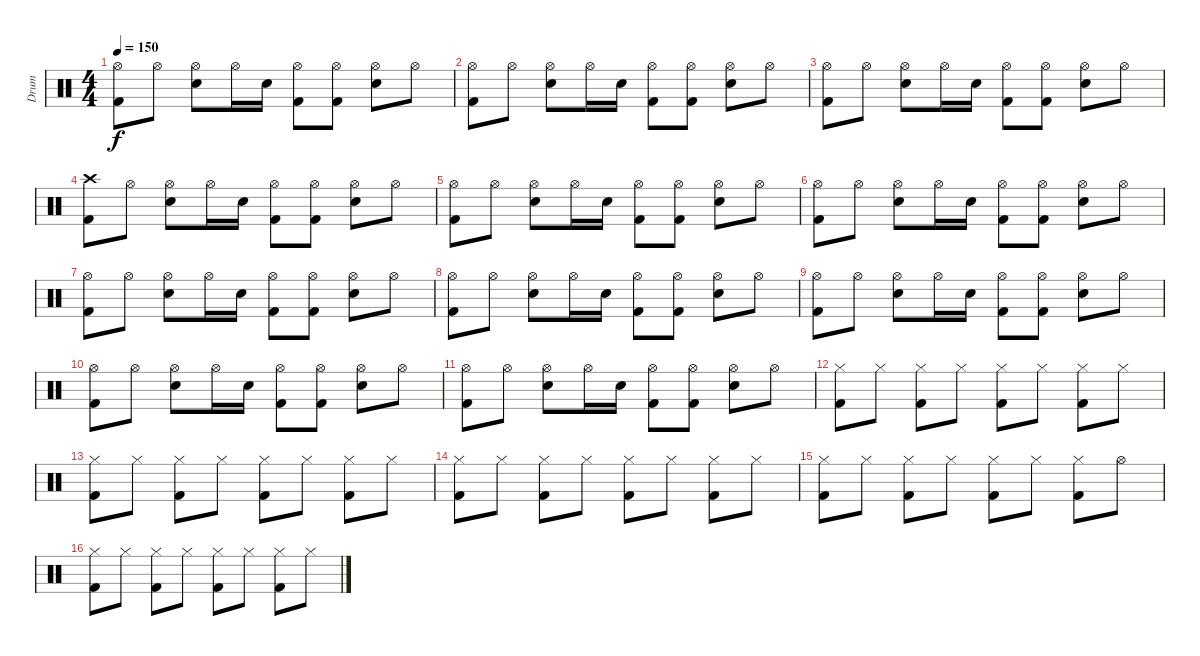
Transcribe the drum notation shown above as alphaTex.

\track ("Drum" "Drum") {instrument percussion}
\staff {score}
\articulation defaults
\ts (4 4)
\tempo 150
\clef neutral
\ks c
("Hi-Hat (open)" "Kick (hit) 2").8{dy f} "Hi-Hat (open)".8 ("Hi-Hat (open)" "Snare (hit) 2").8 "Hi-Hat (open)".16 "Snare (hit) 2".16 ("Hi-Hat (open)" "Kick (hit) 2").8 ("Hi-Hat (open)" "Kick (hit) 2").8 ("Hi-Hat (open)" "Snare (hit) 2").8 "Hi-Hat (open)".8 |
("Hi-Hat (open)" "Kick (hit) 2").8 "Hi-Hat (open)".8 ("Hi-Hat (open)" "Snare (hit) 2").8 "Hi-Hat (open)".16 "Snare (hit) 2".16 ("Hi-Hat (open)" "Kick (hit) 2").8 ("Hi-Hat (open)" "Kick (hit) 2").8 ("Hi-Hat (open)" "Snare (hit) 2").8 "Hi-Hat (open)".8 |
("Hi-Hat (open)" "Kick (hit) 2").8 "Hi-Hat (open)".8 ("Hi-Hat (open)" "Snare (hit) 2").8 "Hi-Hat (open)".16 "Snare (hit) 2".16 ("Hi-Hat (open)" "Kick (hit) 2").8 ("Hi-Hat (open)" "Kick (hit) 2").8 ("Hi-Hat (open)" "Snare (hit) 2").8 "Hi-Hat (open)".8 |
("Crash high (hit)" "Kick (hit) 2").8 "Hi-Hat (open)".8 ("Hi-Hat (open)" "Snare (hit) 2").8 "Hi-Hat (open)".16 "Snare (hit) 2".16 ("Hi-Hat (open)" "Kick (hit) 2").8 ("Hi-Hat (open)" "Kick (hit) 2").8 ("Hi-Hat (open)" "Snare (hit) 2").8 "Hi-Hat (open)".8 |
("Hi-Hat (open)" "Kick (hit) 2").8 "Hi-Hat (open)".8 ("Hi-Hat (open)" "Snare (hit) 2").8 "Hi-Hat (open)".16 "Snare (hit) 2".16 ("Hi-Hat (open)" "Kick (hit) 2").8 ("Hi-Hat (open)" "Kick (hit) 2").8 ("Hi-Hat (open)" "Snare (hit) 2").8 "Hi-Hat (open)".8 |
("Hi-Hat (open)" "Kick (hit) 2").8 "Hi-Hat (open)".8 ("Hi-Hat (open)" "Snare (hit) 2").8 "Hi-Hat (open)".16 "Snare (hit) 2".16 ("Hi-Hat (open)" "Kick (hit) 2").8 ("Hi-Hat (open)" "Kick (hit) 2").8 ("Hi-Hat (open)" "Snare (hit) 2").8 "Hi-Hat (open)".8 |
("Hi-Hat (open)" "Kick (hit) 2").8 "Hi-Hat (open)".8 ("Hi-Hat (open)" "Snare (hit) 2").8 "Hi-Hat (open)".16 "Snare (hit) 2".16 ("Hi-Hat (open)" "Kick (hit) 2").8 ("Hi-Hat (open)" "Kick (hit) 2").8 ("Hi-Hat (open)" "Snare (hit) 2").8 "Hi-Hat (open)".8 |
("Hi-Hat (open)" "Kick (hit) 2").8 "Hi-Hat (open)".8 ("Hi-Hat (open)" "Snare (hit) 2").8 "Hi-Hat (open)".16 "Snare (hit) 2".16 ("Hi-Hat (open)" "Kick (hit) 2").8 ("Hi-Hat (open)" "Kick (hit) 2").8 ("Hi-Hat (open)" "Snare (hit) 2").8 "Hi-Hat (open)".8 |
("Hi-Hat (open)" "Kick (hit) 2").8 "Hi-Hat (open)".8 ("Hi-Hat (open)" "Snare (hit) 2").8 "Hi-Hat (open)".16 "Snare (hit) 2".16 ("Hi-Hat (open)" "Kick (hit) 2").8 ("Hi-Hat (open)" "Kick (hit) 2").8 ("Hi-Hat (open)" "Snare (hit) 2").8 "Hi-Hat (open)".8 |
("Hi-Hat (open)" "Kick (hit) 2").8 "Hi-Hat (open)".8 ("Hi-Hat (open)" "Snare (hit) 2").8 "Hi-Hat (open)".16 "Snare (hit) 2".16 ("Hi-Hat (open)" "Kick (hit) 2").8 ("Hi-Hat (open)" "Kick (hit) 2").8 ("Hi-Hat (open)" "Snare (hit) 2").8 "Hi-Hat (open)".8 |
("Hi-Hat (open)" "Kick (hit) 2").8 "Hi-Hat (open)".8 ("Hi-Hat (open)" "Snare (hit) 2").8 "Hi-Hat (open)".16 "Snare (hit) 2".16 ("Hi-Hat (open)" "Kick (hit) 2").8 ("Hi-Hat (open)" "Kick (hit) 2").8 ("Hi-Hat (open)" "Snare (hit) 2").8 "Hi-Hat (open)".8 |
("Hi-Hat (closed)" "Kick (hit) 2").8 "Hi-Hat (closed)".8 ("Hi-Hat (closed)" "Kick (hit) 2").8 "Hi-Hat (closed)".8 ("Hi-Hat (closed)" "Kick (hit) 2").8 "Hi-Hat (closed)".8 ("Hi-Hat (closed)" "Kick (hit) 2").8 "Hi-Hat (closed)".8 |
("Hi-Hat (closed)" "Kick (hit) 2").8 "Hi-Hat (closed)".8 ("Hi-Hat (closed)" "Kick (hit) 2").8 "Hi-Hat (closed)".8 ("Hi-Hat (closed)" "Kick (hit) 2").8 "Hi-Hat (closed)".8 ("Hi-Hat (closed)" "Kick (hit) 2").8 "Hi-Hat (closed)".8 |
("Hi-Hat (closed)" "Kick (hit) 2").8 "Hi-Hat (closed)".8 ("Hi-Hat (closed)" "Kick (hit) 2").8 "Hi-Hat (closed)".8 ("Hi-Hat (closed)" "Kick (hit) 2").8 "Hi-Hat (closed)".8 ("Hi-Hat (closed)" "Kick (hit) 2").8 "Hi-Hat (closed)".8 |
("Hi-Hat (closed)" "Kick (hit) 2").8 "Hi-Hat (closed)".8 ("Hi-Hat (closed)" "Kick (hit) 2").8 "Hi-Hat (closed)".8 ("Hi-Hat (closed)" "Kick (hit) 2").8 "Hi-Hat (closed)".8 ("Hi-Hat (closed)" "Kick (hit) 2").8 "Hi-Hat (open)".8 |
("Hi-Hat (closed)" "Kick (hit) 2").8 "Hi-Hat (closed)".8 ("Hi-Hat (closed)" "Kick (hit) 2").8 "Hi-Hat (closed)".8 ("Hi-Hat (closed)" "Kick (hit) 2").8 "Hi-Hat (closed)".8 ("Hi-Hat (closed)" "Kick (hit) 2").8 "Hi-Hat (closed)".8
